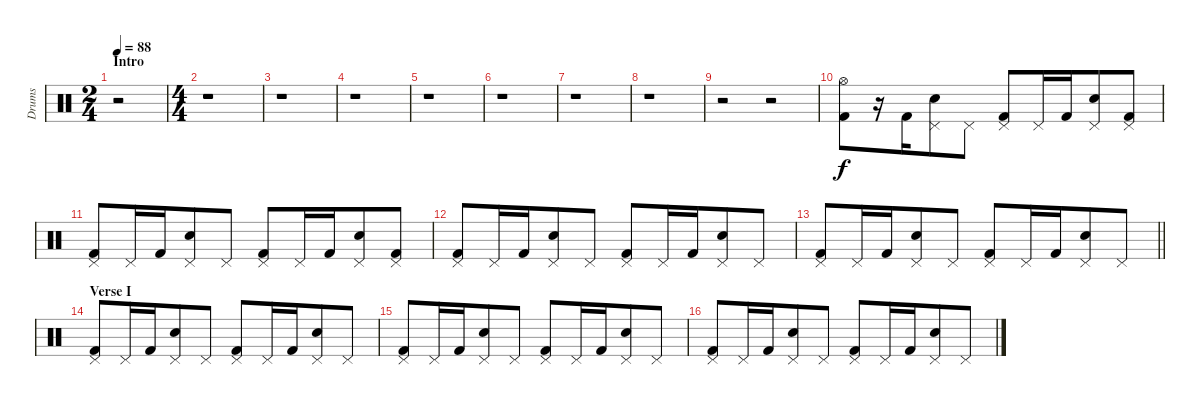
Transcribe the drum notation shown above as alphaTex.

\track ("Drums" "Drums") {instrument percussion}
\staff {score}
\articulation defaults
\ts (2 4)
\section ("" "Intro")
\tempo 88
\clef neutral
\ks aminor
r.2{dy f} |
\ts (4 4)
r.1 |
r.1 |
r.1 |
r.1 |
r.1 |
r.1 |
r.1 |
r.2 r.2 |
("Hi-Hat (open)" "Kick (hit) 2").8 r.16 "Kick (hit) 2".16{beam merge} ("Pedal Hi-Hat (hit)" "Electric Snare (hit)").8{beam merge} "Pedal Hi-Hat (hit)".8 ("Pedal Hi-Hat (hit)" "Kick (hit) 2").8{beam merge} "Pedal Hi-Hat (hit)".16 "Kick (hit) 2".16{beam merge} ("Pedal Hi-Hat (hit)" "Electric Snare (hit)").8{beam merge} ("Pedal Hi-Hat (hit)" "Kick (hit) 2").8 |
("Pedal Hi-Hat (hit)" "Kick (hit) 2").8 "Pedal Hi-Hat (hit)".16 "Kick (hit) 2".16{beam merge} ("Pedal Hi-Hat (hit)" "Electric Snare (hit)").8{beam merge} "Pedal Hi-Hat (hit)".8 ("Pedal Hi-Hat (hit)" "Kick (hit) 2").8{beam merge} "Pedal Hi-Hat (hit)".16 "Kick (hit) 2".16{beam merge} ("Pedal Hi-Hat (hit)" "Electric Snare (hit)").8{beam merge} ("Pedal Hi-Hat (hit)" "Kick (hit) 2").8 |
("Pedal Hi-Hat (hit)" "Kick (hit) 2").8 "Pedal Hi-Hat (hit)".16 "Kick (hit) 2".16{beam merge} ("Pedal Hi-Hat (hit)" "Electric Snare (hit)").8{beam merge} "Pedal Hi-Hat (hit)".8 ("Pedal Hi-Hat (hit)" "Kick (hit) 2").8{beam merge} "Pedal Hi-Hat (hit)".16 "Kick (hit) 2".16{beam merge} ("Pedal Hi-Hat (hit)" "Electric Snare (hit)").8{beam merge} "Pedal Hi-Hat (hit)".8 |
\barLineRight lightlight
("Pedal Hi-Hat (hit)" "Kick (hit) 2").8 "Pedal Hi-Hat (hit)".16 "Kick (hit) 2".16{beam merge} ("Pedal Hi-Hat (hit)" "Electric Snare (hit)").8{beam merge} "Pedal Hi-Hat (hit)".8 ("Pedal Hi-Hat (hit)" "Kick (hit) 2").8{beam merge} "Pedal Hi-Hat (hit)".16 "Kick (hit) 2".16{beam merge} ("Pedal Hi-Hat (hit)" "Electric Snare (hit)").8{beam merge} "Pedal Hi-Hat (hit)".8 |
\section ("" "Verse I")
("Pedal Hi-Hat (hit)" "Kick (hit) 2").8 "Pedal Hi-Hat (hit)".16 "Kick (hit) 2".16{beam merge} ("Pedal Hi-Hat (hit)" "Electric Snare (hit)").8{beam merge} "Pedal Hi-Hat (hit)".8 ("Pedal Hi-Hat (hit)" "Kick (hit) 2").8{beam merge} "Pedal Hi-Hat (hit)".16 "Kick (hit) 2".16{beam merge} ("Pedal Hi-Hat (hit)" "Electric Snare (hit)").8{beam merge} "Pedal Hi-Hat (hit)".8 |
("Pedal Hi-Hat (hit)" "Kick (hit) 2").8 "Pedal Hi-Hat (hit)".16 "Kick (hit) 2".16{beam merge} ("Pedal Hi-Hat (hit)" "Electric Snare (hit)").8{beam merge} "Pedal Hi-Hat (hit)".8 ("Pedal Hi-Hat (hit)" "Kick (hit) 2").8{beam merge} "Pedal Hi-Hat (hit)".16 "Kick (hit) 2".16{beam merge} ("Pedal Hi-Hat (hit)" "Electric Snare (hit)").8{beam merge} "Pedal Hi-Hat (hit)".8 |
("Pedal Hi-Hat (hit)" "Kick (hit) 2").8 "Pedal Hi-Hat (hit)".16 "Kick (hit) 2".16{beam merge} ("Pedal Hi-Hat (hit)" "Electric Snare (hit)").8{beam merge} "Pedal Hi-Hat (hit)".8 ("Pedal Hi-Hat (hit)" "Kick (hit) 2").8{beam merge} "Pedal Hi-Hat (hit)".16 "Kick (hit) 2".16{beam merge} ("Pedal Hi-Hat (hit)" "Electric Snare (hit)").8{beam merge} "Pedal Hi-Hat (hit)".8
